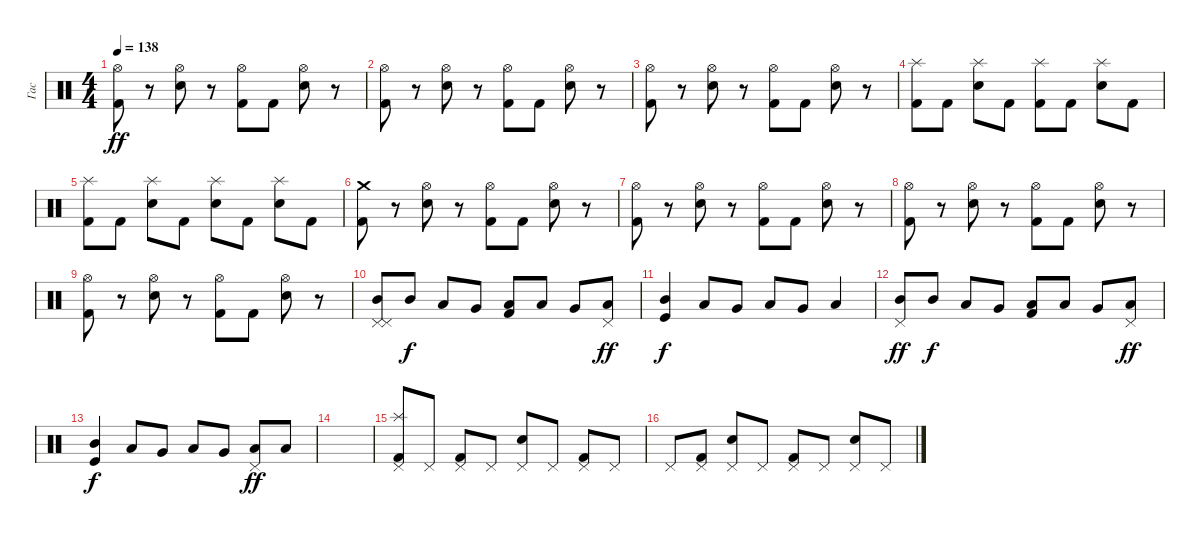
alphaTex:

\track ("Гас" "Гас") {instrument percussion}
\staff {score}
\articulation defaults
\ts (4 4)
\tempo 138
\clef neutral
\ks c
("Hi-Hat (open)" "Kick (hit) 2").8{dy ff} r.8 ("Hi-Hat (open)" "Electric Snare (hit)").8 r.8 ("Hi-Hat (open)" "Kick (hit) 2").8 "Kick (hit) 2".8 ("Hi-Hat (open)" "Electric Snare (hit)").8 r.8 |
("Hi-Hat (open)" "Kick (hit) 2").8 r.8 ("Hi-Hat (open)" "Electric Snare (hit)").8 r.8 ("Hi-Hat (open)" "Kick (hit) 2").8 "Kick (hit) 2".8 ("Hi-Hat (open)" "Electric Snare (hit)").8 r.8 |
("Hi-Hat (open)" "Kick (hit) 2").8 r.8 ("Hi-Hat (open)" "Electric Snare (hit)").8 r.8 ("Hi-Hat (open)" "Kick (hit) 2").8 "Kick (hit) 2".8 ("Hi-Hat (open)" "Electric Snare (hit)").8 r.8 |
("Splash (hit)" "Kick (hit) 2").8 "Kick (hit) 2".8 ("Splash (hit)" "Electric Snare (hit)").8 "Kick (hit) 2".8 ("Splash (hit)" "Kick (hit) 2").8 "Kick (hit) 2".8 ("Splash (hit)" "Electric Snare (hit)").8 "Kick (hit) 2".8 |
("Splash (hit)" "Kick (hit) 2").8 "Kick (hit) 2".8 ("Splash (hit)" "Electric Snare (hit)").8 "Kick (hit) 2".8 ("Splash (hit)" "Electric Snare (hit)").8 "Kick (hit) 2".8 ("Splash (hit)" "Electric Snare (hit)").8 "Kick (hit) 2".8 |
("Crash medium (hit)" "Kick (hit) 2").8 r.8 ("Hi-Hat (open)" "Electric Snare (hit)").8 r.8 ("Hi-Hat (open)" "Kick (hit) 2").8 "Kick (hit) 2".8 ("Hi-Hat (open)" "Electric Snare (hit)").8 r.8 |
("Hi-Hat (open)" "Kick (hit) 2").8 r.8 ("Hi-Hat (open)" "Electric Snare (hit)").8 r.8 ("Hi-Hat (open)" "Kick (hit) 2").8 "Kick (hit) 2".8 ("Hi-Hat (open)" "Electric Snare (hit)").8 r.8 |
("Hi-Hat (open)" "Kick (hit) 2").8 r.8 ("Hi-Hat (open)" "Electric Snare (hit)").8 r.8 ("Hi-Hat (open)" "Kick (hit) 2").8 "Kick (hit) 2".8 ("Hi-Hat (open)" "Electric Snare (hit)").8 r.8 |
("Hi-Hat (open)" "Kick (hit) 2").8 r.8 ("Hi-Hat (open)" "Electric Snare (hit)").8 r.8 ("Hi-Hat (open)" "Kick (hit) 2").8 "Kick (hit) 2".8 ("Hi-Hat (open)" "Electric Snare (hit)").8 r.8 |
("Pedal Hi-Hat (hit)" "Pedal Hi-Hat (hit)" "Mid Tom (hit)").8 "Mid Tom (hit)".8{dy f} "Low Tom (hit)".8 "Very Low Tom (hit)".8 ("Low Floor Tom (hit)" "Kick (hit) 2").8 "Low Floor Tom (hit)".8 "Very Low Tom (hit)".8 ("Pedal Hi-Hat (hit)" "Low Tom (hit)").8{dy ff} |
("Mid Tom (hit)" "Kick (hit)").4{dy f} "Low Tom (hit)".8 "Very Low Tom (hit)".8 "Low Floor Tom (hit)".8 "Very Low Tom (hit)".8 "Low Floor Tom (hit)".4 |
("Pedal Hi-Hat (hit)" "Mid Tom (hit)").8{dy ff} "Mid Tom (hit)".8{dy f} "Low Tom (hit)".8 "Very Low Tom (hit)".8 ("Low Floor Tom (hit)" "Kick (hit) 2").8 "Low Floor Tom (hit)".8 "Very Low Tom (hit)".8 ("Pedal Hi-Hat (hit)" "Low Tom (hit)").8{dy ff} |
("Mid Tom (hit)" "Kick (hit)").4{dy f} "Low Tom (hit)".8 "Very Low Tom (hit)".8 "Low Floor Tom (hit)".8 "Very Low Tom (hit)".8 ("Pedal Hi-Hat (hit)" "Low Floor Tom (hit)").8{dy ff} "Low Floor Tom (hit)".8 |
|
("Splash (hit)" "Pedal Hi-Hat (hit)" "Kick (hit) 2").8 "Pedal Hi-Hat (hit)".8 ("Pedal Hi-Hat (hit)" "Kick (hit) 2").8 "Pedal Hi-Hat (hit)".8 ("Pedal Hi-Hat (hit)" "Electric Snare (hit)").8 "Pedal Hi-Hat (hit)".8 ("Pedal Hi-Hat (hit)" "Kick (hit) 2").8 "Pedal Hi-Hat (hit)".8 |
"Pedal Hi-Hat (hit)".8 ("Pedal Hi-Hat (hit)" "Kick (hit) 2").8 ("Pedal Hi-Hat (hit)" "Electric Snare (hit)").8 "Pedal Hi-Hat (hit)".8 ("Pedal Hi-Hat (hit)" "Kick (hit) 2").8 "Pedal Hi-Hat (hit)".8 ("Pedal Hi-Hat (hit)" "Electric Snare (hit)").8 "Pedal Hi-Hat (hit)".8
